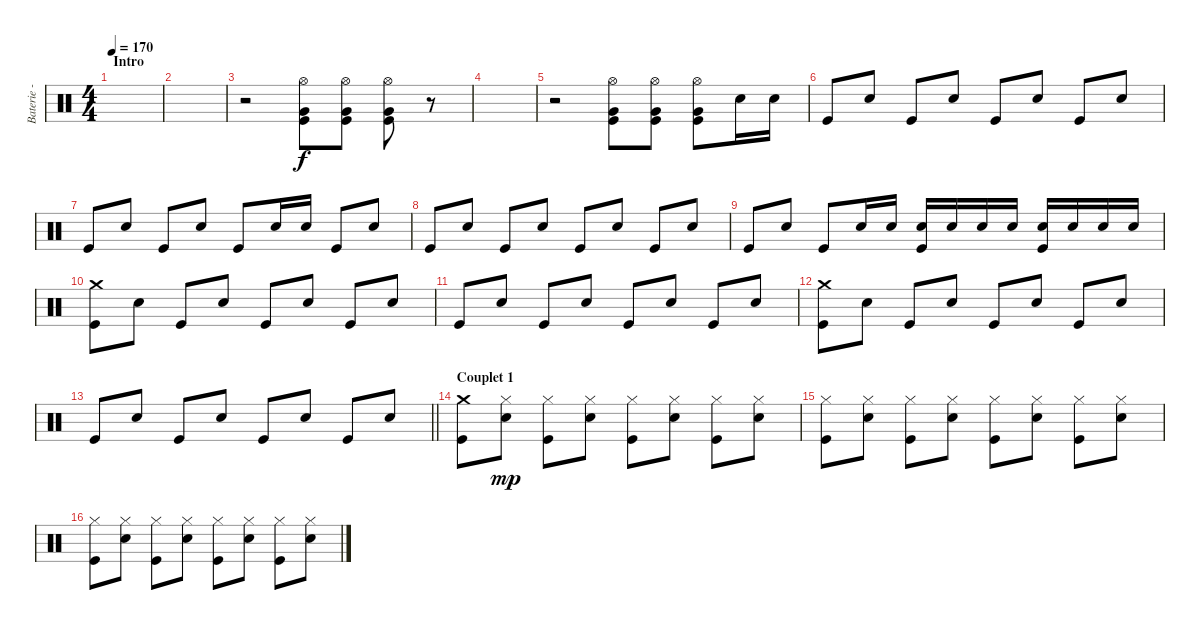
\track ("Baterie - Guillaume" "Baterie - ") {instrument percussion}
\staff {score}
\articulation defaults
\ts (4 4)
\section ("" "Intro")
\tempo 170
\clef neutral
\ks c
|
|
r.2 ("Hi-Hat (open)" "Very Low Tom (hit)" "Kick (hit)").8 ("Hi-Hat (open)" "Very Low Tom (hit)" "Kick (hit)").8 ("Hi-Hat (open)" "Very Low Tom (hit)" "Kick (hit)").8 r.8 |
|
r.2 ("Hi-Hat (open)" "Very Low Tom (hit)" "Kick (hit)").8 ("Hi-Hat (open)" "Very Low Tom (hit)" "Kick (hit)").8 ("Hi-Hat (open)" "Very Low Tom (hit)" "Kick (hit)").8 "Electric Snare (hit)".16 "Electric Snare (hit)".16 |
"Kick (hit)".8 "Electric Snare (hit)".8 "Kick (hit)".8 "Electric Snare (hit)".8 "Kick (hit)".8 "Electric Snare (hit)".8 "Kick (hit)".8 "Electric Snare (hit)".8 |
"Kick (hit)".8 "Electric Snare (hit)".8 "Kick (hit)".8 "Electric Snare (hit)".8 "Kick (hit)".8 "Electric Snare (hit)".16 "Electric Snare (hit)".16 "Kick (hit)".8 "Electric Snare (hit)".8 |
"Kick (hit)".8 "Electric Snare (hit)".8 "Kick (hit)".8 "Electric Snare (hit)".8 "Kick (hit)".8 "Electric Snare (hit)".8 "Kick (hit)".8 "Electric Snare (hit)".8 |
"Kick (hit)".8 "Electric Snare (hit)".8 "Kick (hit)".8 "Electric Snare (hit)".16 "Electric Snare (hit)".16 ("Electric Snare (hit)" "Kick (hit)").16 "Electric Snare (hit)".16 "Electric Snare (hit)".16 "Electric Snare (hit)".16 ("Electric Snare (hit)" "Kick (hit)").16 "Electric Snare (hit)".16 "Electric Snare (hit)".16 "Electric Snare (hit)".16 |
("Crash medium (hit)" "Kick (hit)").8 "Electric Snare (hit)".8 "Kick (hit)".8 "Electric Snare (hit)".8 "Kick (hit)".8 "Electric Snare (hit)".8 "Kick (hit)".8 "Electric Snare (hit)".8 |
"Kick (hit)".8 "Electric Snare (hit)".8 "Kick (hit)".8 "Electric Snare (hit)".8 "Kick (hit)".8 "Electric Snare (hit)".8 "Kick (hit)".8 "Electric Snare (hit)".8 |
("Crash medium (hit)" "Kick (hit)").8 "Electric Snare (hit)".8 "Kick (hit)".8 "Electric Snare (hit)".8 "Kick (hit)".8 "Electric Snare (hit)".8 "Kick (hit)".8 "Electric Snare (hit)".8 |
\barLineRight lightlight "Kick (hit)".8 "Electric Snare (hit)".8 "Kick (hit)".8 "Electric Snare (hit)".8 "Kick (hit)".8 "Electric Snare (hit)".8 "Kick (hit)".8 "Electric Snare (hit)".8
|
\section ("" "Couplet 1")
("Crash medium (hit)" "Kick (hit)").8 ("Hi-Hat (closed)" "Electric Snare (hit)").8{dy mp} ("Hi-Hat (closed)" "Kick (hit)").8 ("Hi-Hat (closed)" "Electric Snare (hit)").8 ("Hi-Hat (closed)" "Kick (hit)").8 ("Hi-Hat (closed)" "Electric Snare (hit)").8 ("Hi-Hat (closed)" "Kick (hit)").8 ("Hi-Hat (closed)" "Electric Snare (hit)").8 |
("Hi-Hat (closed)" "Kick (hit)").8 ("Hi-Hat (closed)" "Electric Snare (hit)").8 ("Hi-Hat (closed)" "Kick (hit)").8 ("Hi-Hat (closed)" "Electric Snare (hit)").8 ("Hi-Hat (closed)" "Kick (hit)").8 ("Hi-Hat (closed)" "Electric Snare (hit)").8 ("Hi-Hat (closed)" "Kick (hit)").8 ("Hi-Hat (closed)" "Electric Snare (hit)").8 |
("Hi-Hat (closed)" "Kick (hit)").8 ("Hi-Hat (closed)" "Electric Snare (hit)").8 ("Hi-Hat (closed)" "Kick (hit)").8 ("Hi-Hat (closed)" "Electric Snare (hit)").8 ("Hi-Hat (closed)" "Kick (hit)").8 ("Hi-Hat (closed)" "Electric Snare (hit)").8 ("Hi-Hat (closed)" "Kick (hit)").8 ("Hi-Hat (closed)" "Electric Snare (hit)").8
